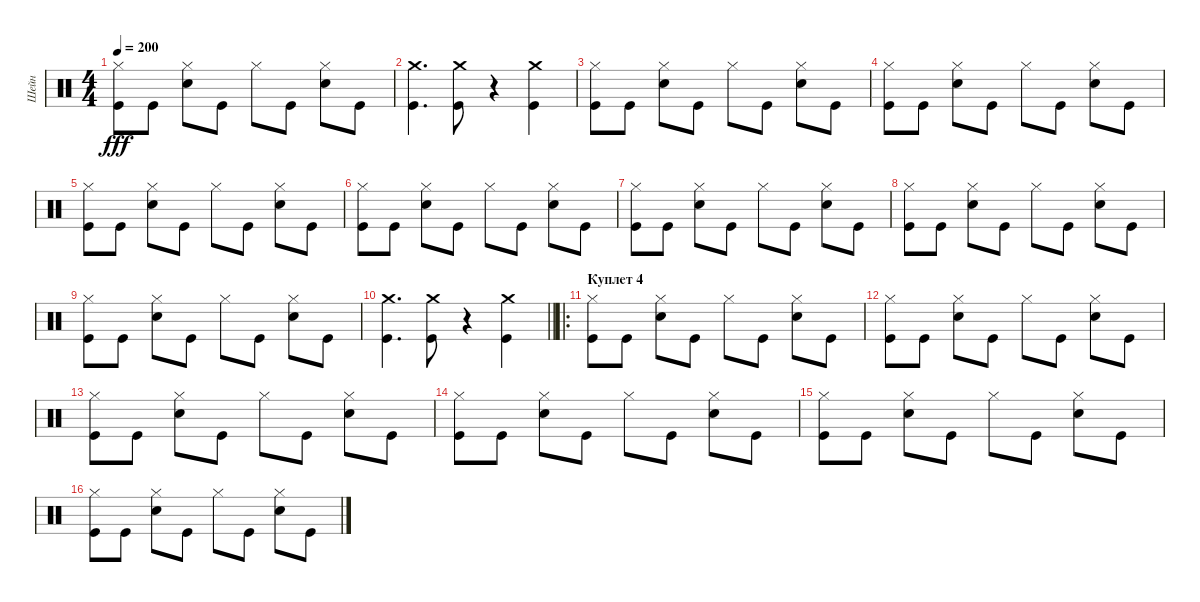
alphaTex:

\track ("Шейн" "Шейн") {instrument percussion}
\staff {score}
\articulation defaults
\ts (4 4)
\tempo 200
\clef neutral
\ks c
("Kick (hit)" "Hi-Hat (closed)").8{dy fff} "Kick (hit)".8 ("Snare (hit) 2" "Hi-Hat (closed)").8 "Kick (hit)".8 "Hi-Hat (closed)".8 "Kick (hit)".8 ("Snare (hit) 2" "Hi-Hat (closed)").8 "Kick (hit)".8 |
("Kick (hit)" "Crash medium (hit)").4{d} ("Kick (hit)" "Crash medium (hit)").8 r.4 ("Crash medium (hit)" "Kick (hit)").4 |
("Kick (hit)" "Hi-Hat (closed)").8 "Kick (hit)".8 ("Snare (hit) 2" "Hi-Hat (closed)").8 "Kick (hit)".8 "Hi-Hat (closed)".8 "Kick (hit)".8 ("Snare (hit) 2" "Hi-Hat (closed)").8 "Kick (hit)".8 |
("Kick (hit)" "Hi-Hat (closed)").8 "Kick (hit)".8 ("Snare (hit) 2" "Hi-Hat (closed)").8 "Kick (hit)".8 "Hi-Hat (closed)".8 "Kick (hit)".8 ("Snare (hit) 2" "Hi-Hat (closed)").8 "Kick (hit)".8 |
("Kick (hit)" "Hi-Hat (closed)").8 "Kick (hit)".8 ("Snare (hit) 2" "Hi-Hat (closed)").8 "Kick (hit)".8 "Hi-Hat (closed)".8 "Kick (hit)".8 ("Snare (hit) 2" "Hi-Hat (closed)").8 "Kick (hit)".8 |
("Kick (hit)" "Hi-Hat (closed)").8 "Kick (hit)".8 ("Snare (hit) 2" "Hi-Hat (closed)").8 "Kick (hit)".8 "Hi-Hat (closed)".8 "Kick (hit)".8 ("Snare (hit) 2" "Hi-Hat (closed)").8 "Kick (hit)".8 |
("Kick (hit)" "Hi-Hat (closed)").8 "Kick (hit)".8 ("Snare (hit) 2" "Hi-Hat (closed)").8 "Kick (hit)".8 "Hi-Hat (closed)".8 "Kick (hit)".8 ("Snare (hit) 2" "Hi-Hat (closed)").8 "Kick (hit)".8 |
("Kick (hit)" "Hi-Hat (closed)").8 "Kick (hit)".8 ("Snare (hit) 2" "Hi-Hat (closed)").8 "Kick (hit)".8 "Hi-Hat (closed)".8 "Kick (hit)".8 ("Snare (hit) 2" "Hi-Hat (closed)").8 "Kick (hit)".8 |
("Kick (hit)" "Hi-Hat (closed)").8 "Kick (hit)".8 ("Snare (hit) 2" "Hi-Hat (closed)").8 "Kick (hit)".8 "Hi-Hat (closed)".8 "Kick (hit)".8 ("Snare (hit) 2" "Hi-Hat (closed)").8 "Kick (hit)".8 |
\barLineRight lightlight
("Kick (hit)" "Crash medium (hit)").4{d} ("Kick (hit)" "Crash medium (hit)").8 r.4 ("Crash medium (hit)" "Kick (hit)").4 |
\ro
\section ("" "Куплет 4")
("Kick (hit)" "Hi-Hat (closed)").8 "Kick (hit)".8 ("Snare (hit) 2" "Hi-Hat (closed)").8 "Kick (hit)".8 "Hi-Hat (closed)".8 "Kick (hit)".8 ("Snare (hit) 2" "Hi-Hat (closed)").8 "Kick (hit)".8 |
("Kick (hit)" "Hi-Hat (closed)").8 "Kick (hit)".8 ("Snare (hit) 2" "Hi-Hat (closed)").8 "Kick (hit)".8 "Hi-Hat (closed)".8 "Kick (hit)".8 ("Snare (hit) 2" "Hi-Hat (closed)").8 "Kick (hit)".8 |
("Kick (hit)" "Hi-Hat (closed)").8 "Kick (hit)".8 ("Snare (hit) 2" "Hi-Hat (closed)").8 "Kick (hit)".8 "Hi-Hat (closed)".8 "Kick (hit)".8 ("Snare (hit) 2" "Hi-Hat (closed)").8 "Kick (hit)".8 |
("Kick (hit)" "Hi-Hat (closed)").8 "Kick (hit)".8 ("Snare (hit) 2" "Hi-Hat (closed)").8 "Kick (hit)".8 "Hi-Hat (closed)".8 "Kick (hit)".8 ("Snare (hit) 2" "Hi-Hat (closed)").8 "Kick (hit)".8 |
("Kick (hit)" "Hi-Hat (closed)").8 "Kick (hit)".8 ("Snare (hit) 2" "Hi-Hat (closed)").8 "Kick (hit)".8 "Hi-Hat (closed)".8 "Kick (hit)".8 ("Snare (hit) 2" "Hi-Hat (closed)").8 "Kick (hit)".8 |
("Kick (hit)" "Hi-Hat (closed)").8 "Kick (hit)".8 ("Snare (hit) 2" "Hi-Hat (closed)").8 "Kick (hit)".8 "Hi-Hat (closed)".8 "Kick (hit)".8 ("Snare (hit) 2" "Hi-Hat (closed)").8 "Kick (hit)".8
